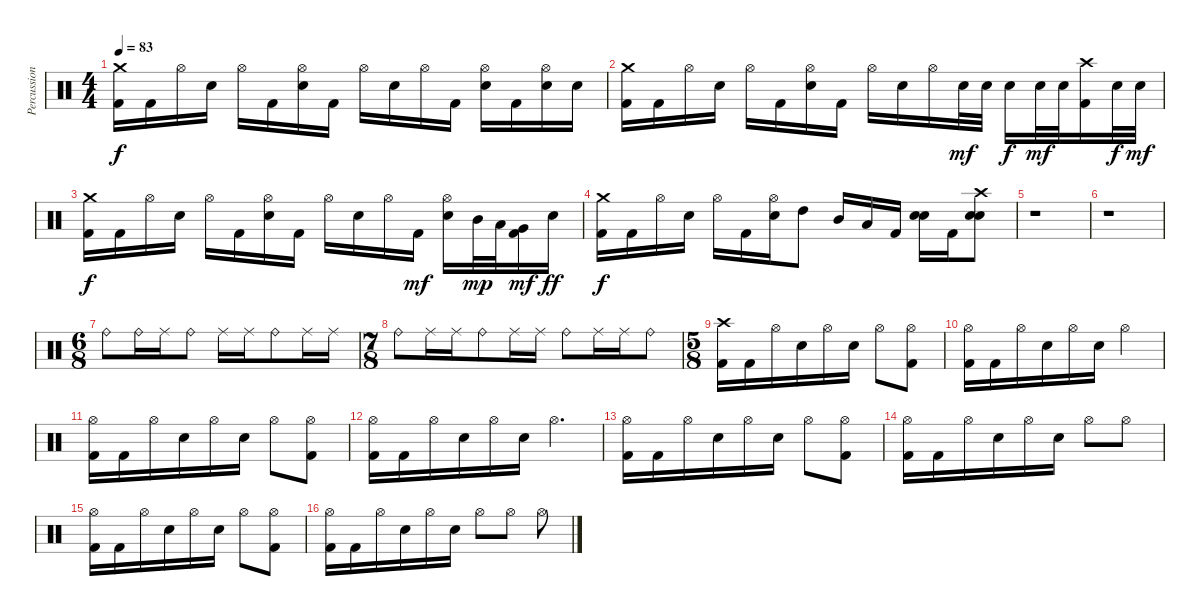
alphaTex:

\track ("Percussion" "Percussion") {instrument percussion}
\staff {score}
\articulation defaults
\ts (4 4)
\tempo 83
\clef neutral
\ks c
("Crash medium (hit)" "Kick (hit) 2").16{dy f} "Kick (hit) 2".16 "Hi-Hat (open)".16 "Electric Snare (hit)".16 "Hi-Hat (open)".16 "Kick (hit) 2".16 ("Hi-Hat (open)" "Electric Snare (hit)").16 "Kick (hit) 2".16 "Hi-Hat (open)".16 "Electric Snare (hit)".16 "Hi-Hat (open)".16 "Kick (hit) 2".16 ("Hi-Hat (open)" "Electric Snare (hit)").16 "Kick (hit) 2".16 ("Hi-Hat (open)" "Electric Snare (hit)").16 "Electric Snare (hit)".16 |
("Crash medium (hit)" "Kick (hit) 2").16 "Kick (hit) 2".16 "Hi-Hat (open)".16 "Electric Snare (hit)".16 "Hi-Hat (open)".16 "Kick (hit) 2".16 ("Hi-Hat (open)" "Electric Snare (hit)").16 "Kick (hit) 2".16 "Hi-Hat (open)".16 "Electric Snare (hit)".16 "Hi-Hat (open)".16 "Electric Snare (hit)".32{dy mf} "Electric Snare (hit)".32 "Electric Snare (hit)".16{dy f} "Electric Snare (hit)".32{dy mf} "Electric Snare (hit)".32 ("Crash high (hit)" "Kick (hit) 2").16 "Electric Snare (hit)".32{dy f} "Electric Snare (hit)".32{dy mf} |
("Crash medium (hit)" "Kick (hit) 2").16{dy f} "Kick (hit) 2".16 "Hi-Hat (open)".16 "Electric Snare (hit)".16 "Hi-Hat (open)".16 "Kick (hit) 2".16 ("Hi-Hat (open)" "Electric Snare (hit)").16 "Kick (hit) 2".16 "Hi-Hat (open)".16 "Electric Snare (hit)".16 "Hi-Hat (open)".16 "Kick (hit) 2".16{dy mf} ("Hi-Hat (open)" "Electric Snare (hit)").16 "Mid Tom (hit)".32{dy mp} "Low Tom (hit)".32 ("Very Low Tom (hit)" "Kick (hit) 2").16{dy mf} "Electric Snare (hit)".16{dy ff} |
("Crash medium (hit)" "Kick (hit) 2").16{dy f} "Kick (hit) 2".16 "Hi-Hat (open)".16 "Electric Snare (hit)".16 "Hi-Hat (open)".16 "Kick (hit) 2".16 ("Hi-Hat (open)" "Electric Snare (hit)").16 "High Tom (hit)".8 "Mid Tom (hit)".16 "Low Tom (hit)".16 "Kick (hit) 2".16 ("Electric Snare (hit)" "Electric Snare (hit)").16{bd 60} "Kick (hit) 2".16 ("Crash high (hit)" "Electric Snare (hit)" "Electric Snare (hit)").8{bd 60} |
r.1 |
r.1 |
\ts (6 8)
"Ride (bell)".8 "Ride (bell)".16 "Ride (middle)".16 "Ride (bell)".8 "Ride (middle)".16 "Ride (middle)".16 "Ride (bell)".8 "Ride (middle)".16 "Ride (middle)".16 |
\ts (7 8)
"Ride (bell)".8 "Ride (middle)".16 "Ride (middle)".16 "Ride (bell)".8 "Ride (middle)".16 "Ride (middle)".16 "Ride (bell)".8 "Ride (middle)".16 "Ride (middle)".16 "Ride (bell)".8 |
\ts (5 8)
("Crash high (hit)" "Kick (hit) 2").16 "Kick (hit) 2".16 "Hi-Hat (open)".16 "Electric Snare (hit)".16 "Hi-Hat (open)".16 "Electric Snare (hit)".16 "Hi-Hat (open)".8 ("Hi-Hat (open)" "Kick (hit) 2").8 |
("Hi-Hat (open)" "Kick (hit) 2").16 "Kick (hit) 2".16 "Hi-Hat (open)".16 "Electric Snare (hit)".16 "Hi-Hat (open)".16 "Electric Snare (hit)".16 "Hi-Hat (open)".4 |
("Hi-Hat (open)" "Kick (hit) 2").16 "Kick (hit) 2".16 "Hi-Hat (open)".16 "Electric Snare (hit)".16 "Hi-Hat (open)".16 "Electric Snare (hit)".16 "Hi-Hat (open)".8 ("Hi-Hat (open)" "Kick (hit) 2").8 |
("Hi-Hat (open)" "Kick (hit) 2").16 "Kick (hit) 2".16 "Hi-Hat (open)".16 "Electric Snare (hit)".16 "Hi-Hat (open)".16 "Electric Snare (hit)".16 "Hi-Hat (open)".4{d} |
("Hi-Hat (open)" "Kick (hit) 2").16 "Kick (hit) 2".16 "Hi-Hat (open)".16 "Electric Snare (hit)".16 "Hi-Hat (open)".16 "Electric Snare (hit)".16 "Hi-Hat (open)".8 ("Hi-Hat (open)" "Kick (hit) 2").8 |
("Hi-Hat (open)" "Kick (hit) 2").16 "Kick (hit) 2".16 "Hi-Hat (open)".16 "Electric Snare (hit)".16 "Hi-Hat (open)".16 "Electric Snare (hit)".16 "Hi-Hat (open)".8 "Hi-Hat (open)".8 |
("Hi-Hat (open)" "Kick (hit) 2").16 "Kick (hit) 2".16 "Hi-Hat (open)".16 "Electric Snare (hit)".16 "Hi-Hat (open)".16 "Electric Snare (hit)".16 "Hi-Hat (open)".8 ("Hi-Hat (open)" "Kick (hit) 2").8 |
("Hi-Hat (open)" "Kick (hit) 2").16 "Kick (hit) 2".16 "Hi-Hat (open)".16 "Electric Snare (hit)".16 "Hi-Hat (open)".16 "Electric Snare (hit)".16 "Hi-Hat (open)".8 "Hi-Hat (open)".8 "Hi-Hat (open)".8
